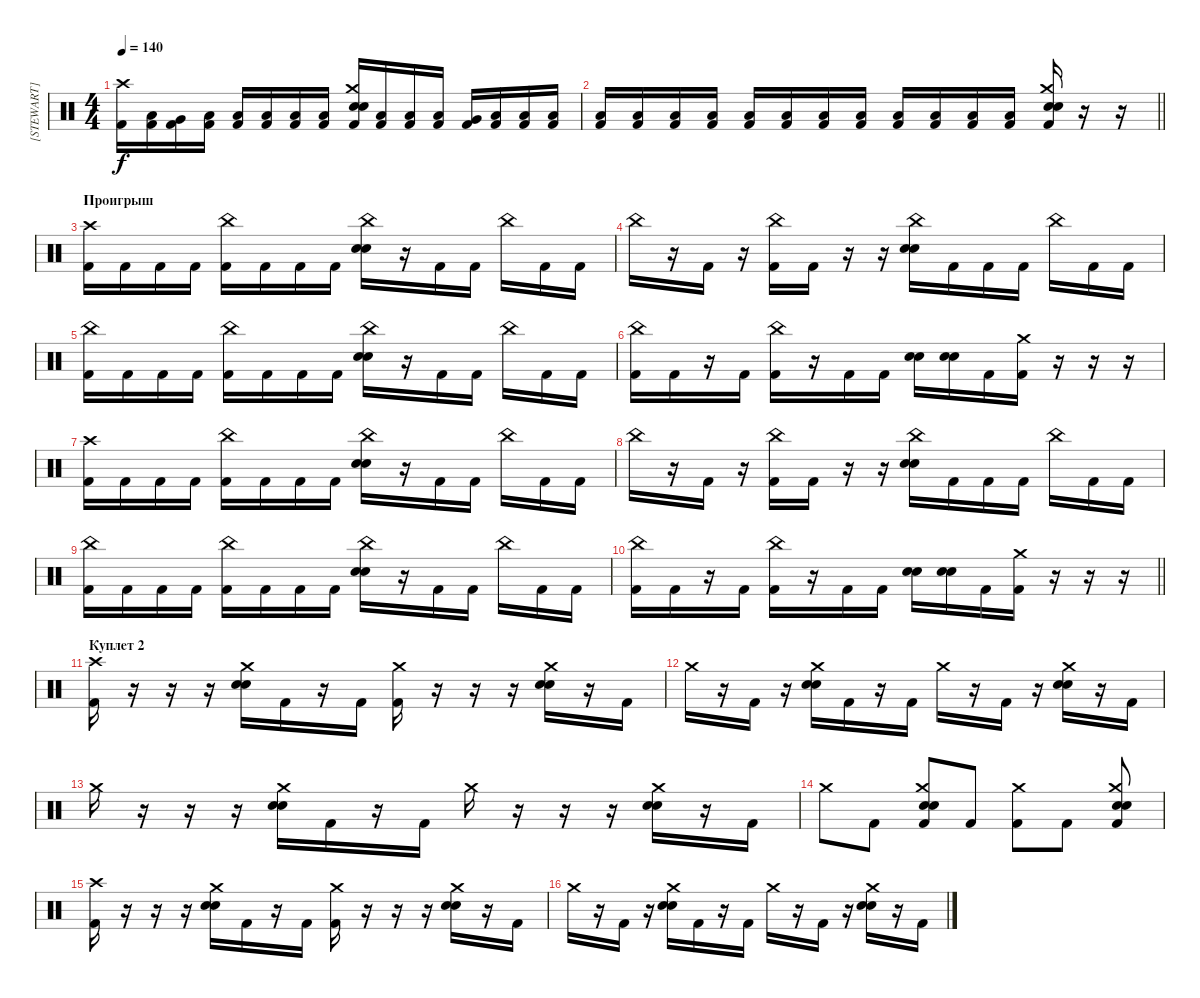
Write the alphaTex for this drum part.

\track ("[STEWART]" "[STEWART]") {instrument percussion}
\staff {score}
\articulation defaults
\ts (4 4)
\tempo 140
\clef neutral
\ks c
("Crash high (hit)" "Kick (hit) 2").16{dy f} ("Low Floor Tom (hit)" "Kick (hit) 2").16 ("Very Low Tom (hit)" "Kick (hit) 2").16 ("Low Floor Tom (hit)" "Kick (hit) 2").16 ("Low Floor Tom (hit)" "Kick (hit) 2").16 ("Low Floor Tom (hit)" "Kick (hit) 2").16 ("Low Floor Tom (hit)" "Kick (hit) 2").16 ("Low Floor Tom (hit)" "Kick (hit) 2").16 ("Crash medium (hit)" "Electric Snare (hit)" "Snare (hit) 2" "Kick (hit) 2").16 ("Low Floor Tom (hit)" "Kick (hit) 2").16 ("Low Floor Tom (hit)" "Kick (hit) 2").16 ("Low Floor Tom (hit)" "Kick (hit) 2").16 ("Very Low Tom (hit)" "Kick (hit) 2").16 ("Low Floor Tom (hit)" "Kick (hit) 2").16 ("Low Floor Tom (hit)" "Kick (hit) 2").16 ("Low Floor Tom (hit)" "Kick (hit) 2").16 |
\barLineRight lightlight
("Low Floor Tom (hit)" "Kick (hit) 2").16 ("Low Floor Tom (hit)" "Kick (hit) 2").16 ("Low Floor Tom (hit)" "Kick (hit) 2").16 ("Low Floor Tom (hit)" "Kick (hit) 2").16 ("Low Floor Tom (hit)" "Kick (hit) 2").16 ("Low Floor Tom (hit)" "Kick (hit) 2").16 ("Low Floor Tom (hit)" "Kick (hit) 2").16 ("Low Floor Tom (hit)" "Kick (hit) 2").16 ("Low Floor Tom (hit)" "Kick (hit) 2").16 ("Low Floor Tom (hit)" "Kick (hit) 2").16 ("Low Floor Tom (hit)" "Kick (hit) 2").16 ("Low Floor Tom (hit)" "Kick (hit) 2").16 ("Crash medium (hit)" "Electric Snare (hit)" "Snare (hit) 2" "Kick (hit) 2").16 r.16 r.16 |
\section ("" "Проигрыш")
("Crash high (hit)" "Kick (hit) 2").16 "Kick (hit) 2".16 "Kick (hit) 2".16 "Kick (hit) 2".16 ("China (hit)" "Kick (hit) 2").16 "Kick (hit) 2".16 "Kick (hit) 2".16 "Kick (hit) 2".16 ("China (hit)" "Electric Snare (hit)" "Snare (hit) 2").16 r.16 "Kick (hit) 2".16 "Kick (hit) 2".16 "China (hit)".16 "Kick (hit) 2".16 "Kick (hit) 2".16 |
"China (hit)".16 r.16 "Kick (hit) 2".16 r.16 ("China (hit)" "Kick (hit) 2").16 "Kick (hit) 2".16 r.16 r.16 ("China (hit)" "Electric Snare (hit)" "Snare (hit) 2").16 "Kick (hit) 2".16 "Kick (hit) 2".16 "Kick (hit) 2".16 "China (hit)".16 "Kick (hit) 2".16 "Kick (hit) 2".16 |
("China (hit)" "Kick (hit) 2").16 "Kick (hit) 2".16 "Kick (hit) 2".16 "Kick (hit) 2".16 ("China (hit)" "Kick (hit) 2").16 "Kick (hit) 2".16 "Kick (hit) 2".16 "Kick (hit) 2".16 ("China (hit)" "Electric Snare (hit)" "Snare (hit) 2").16 r.16 "Kick (hit) 2".16 "Kick (hit) 2".16 "China (hit)".16 "Kick (hit) 2".16 "Kick (hit) 2".16 |
("China (hit)" "Kick (hit) 2").16 "Kick (hit) 2".16 r.16 "Kick (hit) 2".16 ("China (hit)" "Kick (hit) 2").16 r.16 "Kick (hit) 2".16 "Kick (hit) 2".16 ("Electric Snare (hit)" "Snare (hit) 2").16 ("Electric Snare (hit)" "Snare (hit) 2").16 "Kick (hit) 2".16 ("Crash medium (hit)" "Kick (hit) 2").16 r.16 r.16 r.16 |
("Crash high (hit)" "Kick (hit) 2").16 "Kick (hit) 2".16 "Kick (hit) 2".16 "Kick (hit) 2".16 ("China (hit)" "Kick (hit) 2").16 "Kick (hit) 2".16 "Kick (hit) 2".16 "Kick (hit) 2".16 ("China (hit)" "Electric Snare (hit)" "Snare (hit) 2").16 r.16 "Kick (hit) 2".16 "Kick (hit) 2".16 "China (hit)".16 "Kick (hit) 2".16 "Kick (hit) 2".16 |
"China (hit)".16 r.16 "Kick (hit) 2".16 r.16 ("China (hit)" "Kick (hit) 2").16 "Kick (hit) 2".16 r.16 r.16 ("China (hit)" "Electric Snare (hit)" "Snare (hit) 2").16 "Kick (hit) 2".16 "Kick (hit) 2".16 "Kick (hit) 2".16 "China (hit)".16 "Kick (hit) 2".16 "Kick (hit) 2".16 |
("China (hit)" "Kick (hit) 2").16 "Kick (hit) 2".16 "Kick (hit) 2".16 "Kick (hit) 2".16 ("China (hit)" "Kick (hit) 2").16 "Kick (hit) 2".16 "Kick (hit) 2".16 "Kick (hit) 2".16 ("China (hit)" "Electric Snare (hit)" "Snare (hit) 2").16 r.16 "Kick (hit) 2".16 "Kick (hit) 2".16 "China (hit)".16 "Kick (hit) 2".16 "Kick (hit) 2".16 |
\barLineRight lightlight
("China (hit)" "Kick (hit) 2").16 "Kick (hit) 2".16 r.16 "Kick (hit) 2".16 ("China (hit)" "Kick (hit) 2").16 r.16 "Kick (hit) 2".16 "Kick (hit) 2".16 ("Electric Snare (hit)" "Snare (hit) 2").16 ("Electric Snare (hit)" "Snare (hit) 2").16 "Kick (hit) 2".16 ("Crash medium (hit)" "Kick (hit) 2").16 r.16 r.16 r.16 |
\section ("" "Куплет 2")
("Crash high (hit)" "Kick (hit) 2").16 r.16 r.16 r.16 ("Crash medium (hit)" "Electric Snare (hit)" "Snare (hit) 2").16 "Kick (hit) 2".16 r.16 "Kick (hit) 2".16 ("Crash medium (hit)" "Kick (hit) 2").16 r.16 r.16 r.16 ("Crash medium (hit)" "Electric Snare (hit)" "Snare (hit) 2").16 r.16 "Kick (hit) 2".16 |
"Crash medium (hit)".16 r.16 "Kick (hit) 2".16 r.16 ("Crash medium (hit)" "Electric Snare (hit)" "Snare (hit) 2").16 "Kick (hit) 2".16 r.16 "Kick (hit) 2".16 "Crash medium (hit)".16 r.16 "Kick (hit) 2".16 r.16 ("Crash medium (hit)" "Electric Snare (hit)" "Snare (hit) 2").16 r.16 "Kick (hit) 2".16 |
"Crash medium (hit)".16 r.16 r.16 r.16 ("Crash medium (hit)" "Electric Snare (hit)" "Snare (hit) 2").16 "Kick (hit) 2".16 r.16 "Kick (hit) 2".16 "Crash medium (hit)".16 r.16 r.16 r.16 ("Crash medium (hit)" "Electric Snare (hit)" "Snare (hit) 2").16 r.16 "Kick (hit) 2".16 |
"Crash medium (hit)".8 "Kick (hit) 2".8 ("Crash medium (hit)" "Electric Snare (hit)" "Snare (hit) 2" "Kick (hit) 2").8 "Kick (hit) 2".8 ("Crash medium (hit)" "Kick (hit) 2").8 "Kick (hit) 2".8 ("Crash medium (hit)" "Electric Snare (hit)" "Snare (hit) 2" "Kick (hit) 2").8 |
("Crash high (hit)" "Kick (hit) 2").16 r.16 r.16 r.16 ("Crash medium (hit)" "Electric Snare (hit)" "Snare (hit) 2").16 "Kick (hit) 2".16 r.16 "Kick (hit) 2".16 ("Crash medium (hit)" "Kick (hit) 2").16 r.16 r.16 r.16 ("Crash medium (hit)" "Electric Snare (hit)" "Snare (hit) 2").16 r.16 "Kick (hit) 2".16 |
"Crash medium (hit)".16 r.16 "Kick (hit) 2".16 r.16 ("Crash medium (hit)" "Electric Snare (hit)" "Snare (hit) 2").16 "Kick (hit) 2".16 r.16 "Kick (hit) 2".16 "Crash medium (hit)".16 r.16 "Kick (hit) 2".16 r.16 ("Crash medium (hit)" "Electric Snare (hit)" "Snare (hit) 2").16 r.16 "Kick (hit) 2".16
